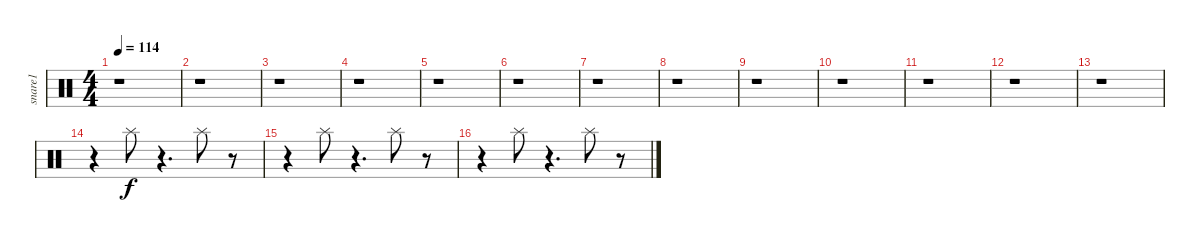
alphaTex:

\track ("snare1              " "snare1    ") {instrument percussion}
\staff {score}
\articulation defaults
\ts (4 4)
\tempo 114
\clef neutral
\ks c
r.1{dy f} |
r.1 |
r.1 |
r.1 |
r.1 |
r.1 |
r.1 |
r.1 |
r.1 |
r.1 |
r.1 |
r.1 |
r.1 |
r.4 "Splash (hit)".8 r.4{d} "Splash (hit)".8 r.8 |
r.4 "Splash (hit)".8 r.4{d} "Splash (hit)".8 r.8 |
r.4 "Splash (hit)".8 r.4{d} "Splash (hit)".8 r.8
